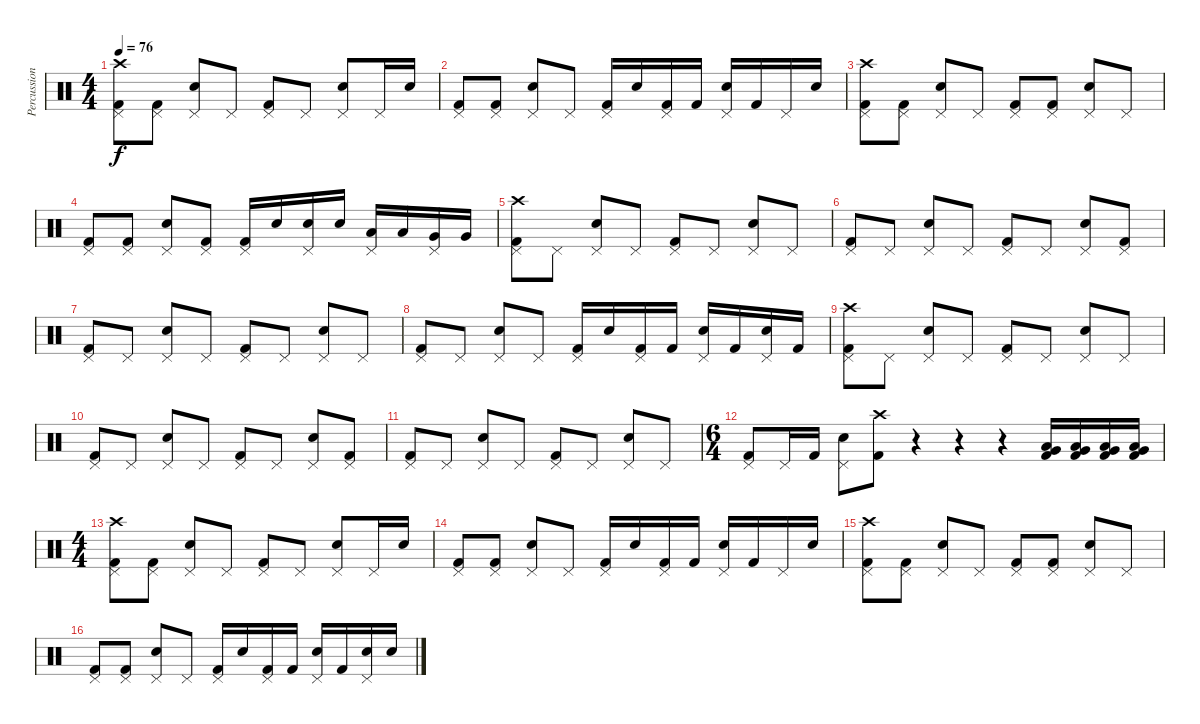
\track ("Percussion" "Percussion") {instrument percussion}
\staff {score}
\articulation defaults
\ts (4 4)
\tempo 76
\clef neutral
\ks c
("Crash high (hit)" "Pedal Hi-Hat (hit)" "Kick (hit) 2").8{dy f} ("Pedal Hi-Hat (hit)" "Kick (hit) 2").8 ("Pedal Hi-Hat (hit)" "Snare (hit) 2").8 "Pedal Hi-Hat (hit)".8 ("Pedal Hi-Hat (hit)" "Kick (hit) 2").8 "Pedal Hi-Hat (hit)".8 ("Pedal Hi-Hat (hit)" "Snare (hit) 2").8 "Pedal Hi-Hat (hit)".16 "Snare (hit) 2".16 |
("Pedal Hi-Hat (hit)" "Kick (hit) 2").8 ("Pedal Hi-Hat (hit)" "Kick (hit) 2").8 ("Pedal Hi-Hat (hit)" "Snare (hit) 2").8 "Pedal Hi-Hat (hit)".8 ("Pedal Hi-Hat (hit)" "Kick (hit) 2").16 "Snare (hit) 2".16 ("Pedal Hi-Hat (hit)" "Kick (hit) 2").16 "Kick (hit) 2".16 ("Pedal Hi-Hat (hit)" "Snare (hit) 2").16 "Kick (hit) 2".16 "Pedal Hi-Hat (hit)".16 "Snare (hit) 2".16 |
("Crash high (hit)" "Pedal Hi-Hat (hit)" "Kick (hit) 2").8 ("Pedal Hi-Hat (hit)" "Kick (hit) 2").8 ("Pedal Hi-Hat (hit)" "Snare (hit) 2").8 "Pedal Hi-Hat (hit)".8 ("Pedal Hi-Hat (hit)" "Kick (hit) 2").8 ("Pedal Hi-Hat (hit)" "Kick (hit) 2").8 ("Pedal Hi-Hat (hit)" "Snare (hit) 2").8 "Pedal Hi-Hat (hit)".8 |
("Pedal Hi-Hat (hit)" "Kick (hit) 2").8 ("Pedal Hi-Hat (hit)" "Kick (hit) 2").8 ("Pedal Hi-Hat (hit)" "Snare (hit) 2").8 ("Pedal Hi-Hat (hit)" "Kick (hit) 2").8 ("Pedal Hi-Hat (hit)" "Kick (hit) 2").16 "Snare (hit) 2".16 ("Pedal Hi-Hat (hit)" "Snare (hit) 2").16 "Snare (hit) 2".16 ("Pedal Hi-Hat (hit)" "Low Tom (hit)").16 "Low Tom (hit)".16 ("Pedal Hi-Hat (hit)" "Very Low Tom (hit)").16 "Very Low Tom (hit)".16 |
("Crash high (hit)" "Pedal Hi-Hat (hit)" "Kick (hit) 2").8 "Pedal Hi-Hat (hit)".8 ("Pedal Hi-Hat (hit)" "Snare (hit) 2").8 "Pedal Hi-Hat (hit)".8 ("Pedal Hi-Hat (hit)" "Kick (hit) 2").8 "Pedal Hi-Hat (hit)".8 ("Pedal Hi-Hat (hit)" "Snare (hit) 2").8 "Pedal Hi-Hat (hit)".8 |
("Pedal Hi-Hat (hit)" "Kick (hit) 2").8 "Pedal Hi-Hat (hit)".8 ("Pedal Hi-Hat (hit)" "Snare (hit) 2").8 "Pedal Hi-Hat (hit)".8 ("Pedal Hi-Hat (hit)" "Kick (hit) 2").8 "Pedal Hi-Hat (hit)".8 ("Pedal Hi-Hat (hit)" "Snare (hit) 2").8 ("Pedal Hi-Hat (hit)" "Kick (hit) 2").8 |
("Pedal Hi-Hat (hit)" "Kick (hit) 2").8 "Pedal Hi-Hat (hit)".8 ("Pedal Hi-Hat (hit)" "Snare (hit) 2").8 "Pedal Hi-Hat (hit)".8 ("Pedal Hi-Hat (hit)" "Kick (hit) 2").8 "Pedal Hi-Hat (hit)".8 ("Pedal Hi-Hat (hit)" "Snare (hit) 2").8 "Pedal Hi-Hat (hit)".8 |
("Pedal Hi-Hat (hit)" "Kick (hit) 2").8 "Pedal Hi-Hat (hit)".8 ("Pedal Hi-Hat (hit)" "Snare (hit) 2").8 "Pedal Hi-Hat (hit)".8 ("Pedal Hi-Hat (hit)" "Kick (hit) 2").16 "Snare (hit) 2".16 ("Pedal Hi-Hat (hit)" "Kick (hit) 2").16 "Kick (hit) 2".16 ("Pedal Hi-Hat (hit)" "Snare (hit) 2").16 "Kick (hit) 2".16 ("Pedal Hi-Hat (hit)" "Snare (hit) 2").16 "Kick (hit) 2".16 |
("Crash high (hit)" "Pedal Hi-Hat (hit)" "Kick (hit) 2").8 "Pedal Hi-Hat (hit)".8 ("Pedal Hi-Hat (hit)" "Snare (hit) 2").8 "Pedal Hi-Hat (hit)".8 ("Pedal Hi-Hat (hit)" "Kick (hit) 2").8 "Pedal Hi-Hat (hit)".8 ("Pedal Hi-Hat (hit)" "Snare (hit) 2").8 "Pedal Hi-Hat (hit)".8 |
("Pedal Hi-Hat (hit)" "Kick (hit) 2").8 "Pedal Hi-Hat (hit)".8 ("Pedal Hi-Hat (hit)" "Snare (hit) 2").8 "Pedal Hi-Hat (hit)".8 ("Pedal Hi-Hat (hit)" "Kick (hit) 2").8 "Pedal Hi-Hat (hit)".8 ("Pedal Hi-Hat (hit)" "Snare (hit) 2").8 ("Pedal Hi-Hat (hit)" "Kick (hit) 2").8 |
("Pedal Hi-Hat (hit)" "Kick (hit) 2").8 "Pedal Hi-Hat (hit)".8 ("Pedal Hi-Hat (hit)" "Snare (hit) 2").8 "Pedal Hi-Hat (hit)".8 ("Pedal Hi-Hat (hit)" "Kick (hit) 2").8 "Pedal Hi-Hat (hit)".8 ("Pedal Hi-Hat (hit)" "Snare (hit) 2").8 "Pedal Hi-Hat (hit)".8 |
\ts (6 4)
("Pedal Hi-Hat (hit)" "Kick (hit) 2").8 "Pedal Hi-Hat (hit)".16 "Kick (hit) 2".16 ("Pedal Hi-Hat (hit)" "Snare (hit) 2").8 ("Crash high (hit)" "Kick (hit) 2").8 r.4 r.4 r.4 ("Low Tom (hit)" "Very Low Tom (hit)" "Kick (hit) 2").16 ("Low Tom (hit)" "Very Low Tom (hit)" "Kick (hit) 2").16 ("Low Tom (hit)" "Very Low Tom (hit)" "Kick (hit) 2").16 ("Low Tom (hit)" "Very Low Tom (hit)" "Kick (hit) 2").16 |
\ts (4 4)
("Crash high (hit)" "Pedal Hi-Hat (hit)" "Kick (hit) 2").8 ("Pedal Hi-Hat (hit)" "Kick (hit) 2").8 ("Pedal Hi-Hat (hit)" "Snare (hit) 2").8 "Pedal Hi-Hat (hit)".8 ("Pedal Hi-Hat (hit)" "Kick (hit) 2").8 "Pedal Hi-Hat (hit)".8 ("Pedal Hi-Hat (hit)" "Snare (hit) 2").8 "Pedal Hi-Hat (hit)".16 "Snare (hit) 2".16 |
("Pedal Hi-Hat (hit)" "Kick (hit) 2").8 ("Pedal Hi-Hat (hit)" "Kick (hit) 2").8 ("Pedal Hi-Hat (hit)" "Snare (hit) 2").8 "Pedal Hi-Hat (hit)".8 ("Pedal Hi-Hat (hit)" "Kick (hit) 2").16 "Snare (hit) 2".16 ("Pedal Hi-Hat (hit)" "Kick (hit) 2").16 "Kick (hit) 2".16 ("Pedal Hi-Hat (hit)" "Snare (hit) 2").16 "Kick (hit) 2".16 "Pedal Hi-Hat (hit)".16 "Snare (hit) 2".16 |
("Crash high (hit)" "Pedal Hi-Hat (hit)" "Kick (hit) 2").8 ("Pedal Hi-Hat (hit)" "Kick (hit) 2").8 ("Pedal Hi-Hat (hit)" "Snare (hit) 2").8 "Pedal Hi-Hat (hit)".8 ("Pedal Hi-Hat (hit)" "Kick (hit) 2").8 ("Pedal Hi-Hat (hit)" "Kick (hit) 2").8 ("Pedal Hi-Hat (hit)" "Snare (hit) 2").8 "Pedal Hi-Hat (hit)".8 |
("Pedal Hi-Hat (hit)" "Kick (hit) 2").8 ("Pedal Hi-Hat (hit)" "Kick (hit) 2").8 ("Pedal Hi-Hat (hit)" "Snare (hit) 2").8 "Pedal Hi-Hat (hit)".8 ("Pedal Hi-Hat (hit)" "Kick (hit) 2").16 "Snare (hit) 2".16 ("Pedal Hi-Hat (hit)" "Kick (hit) 2").16 "Kick (hit) 2".16 ("Pedal Hi-Hat (hit)" "Snare (hit) 2").16 "Kick (hit) 2".16 ("Pedal Hi-Hat (hit)" "Snare (hit) 2").16 "Snare (hit) 2".16
